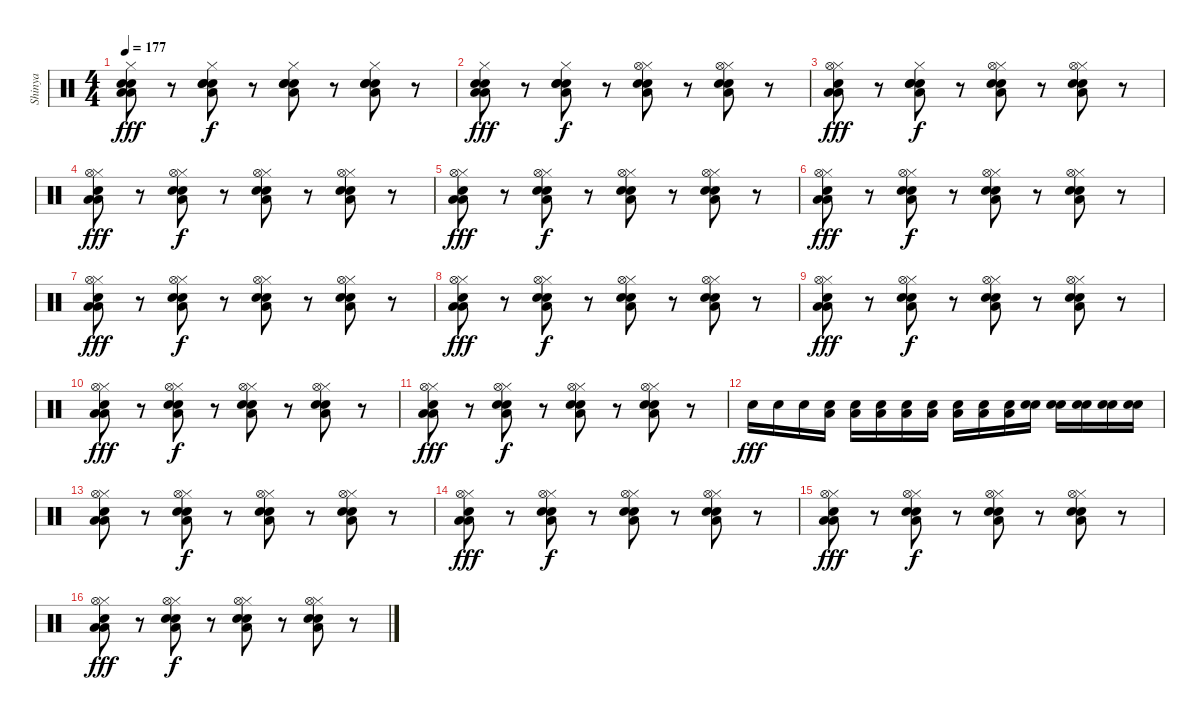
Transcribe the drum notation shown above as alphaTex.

\track ("Shinya " "Shinya ") {instrument percussion}
\staff {score}
\articulation defaults
\ts (4 4)
\tempo 177
\clef neutral
\ks c
("Hi-Hat (closed)" "Electric Snare (hit)" "Low Tom (hit)" "Electric Snare (hit)" "Low Tom (hit)").8{dy fff} r.8 ("Hi-Hat (closed)" "Electric Snare (hit)" "Low Tom (hit)" "Electric Snare (hit)" "Snare (hit) 2").8{dy f} r.8 ("Hi-Hat (closed)" "Electric Snare (hit)" "Electric Snare (hit)" "Snare (hit) 2" "Low Tom (hit)").8 r.8 ("Hi-Hat (closed)" "Electric Snare (hit)" "Electric Snare (hit)" "Electric Snare (hit)" "Low Tom (hit)").8 r.8 |
("Hi-Hat (closed)" "Electric Snare (hit)" "Low Tom (hit)" "Electric Snare (hit)" "Low Tom (hit)").8{dy fff} r.8 ("Hi-Hat (closed)" "Electric Snare (hit)" "Low Tom (hit)" "Electric Snare (hit)" "Snare (hit) 2").8{dy f} r.8 ("Hi-Hat (closed)" "Electric Snare (hit)" "Hi-Hat (open)" "Snare (hit) 2" "Low Tom (hit)").8 r.8 ("Hi-Hat (closed)" "Electric Snare (hit)" "Electric Snare (hit)" "Low Tom (hit)" "Hi-Hat (open)").8 r.8 |
("Hi-Hat (closed)" "Electric Snare (hit)" "Low Tom (hit)" "Hi-Hat (open)" "Low Tom (hit)").8{dy fff} r.8 ("Hi-Hat (closed)" "Electric Snare (hit)" "Low Tom (hit)" "Electric Snare (hit)" "Snare (hit) 2").8{dy f} r.8 ("Hi-Hat (closed)" "Electric Snare (hit)" "Hi-Hat (open)" "Snare (hit) 2" "Low Tom (hit)").8 r.8 ("Hi-Hat (closed)" "Electric Snare (hit)" "Electric Snare (hit)" "Hi-Hat (open)" "Low Tom (hit)").8 r.8 |
("Hi-Hat (closed)" "Electric Snare (hit)" "Low Tom (hit)" "Hi-Hat (open)" "Low Tom (hit)").8{dy fff} r.8 ("Hi-Hat (closed)" "Electric Snare (hit)" "Low Tom (hit)" "Hi-Hat (open)" "Snare (hit) 2").8{dy f} r.8 ("Hi-Hat (closed)" "Electric Snare (hit)" "Hi-Hat (open)" "Snare (hit) 2" "Low Tom (hit)").8 r.8 ("Hi-Hat (closed)" "Electric Snare (hit)" "Hi-Hat (open)" "Low Tom (hit)" "Electric Snare (hit)").8 r.8 |
("Hi-Hat (closed)" "Electric Snare (hit)" "Low Tom (hit)" "Hi-Hat (open)" "Low Tom (hit)").8{dy fff} r.8 ("Hi-Hat (closed)" "Electric Snare (hit)" "Low Tom (hit)" "Hi-Hat (open)" "Snare (hit) 2").8{dy f} r.8 ("Hi-Hat (closed)" "Electric Snare (hit)" "Hi-Hat (open)" "Snare (hit) 2" "Low Tom (hit)").8 r.8 ("Hi-Hat (closed)" "Hi-Hat (open)" "Electric Snare (hit)" "Electric Snare (hit)" "Low Tom (hit)").8 r.8 |
("Hi-Hat (closed)" "Electric Snare (hit)" "Low Tom (hit)" "Hi-Hat (open)" "Low Tom (hit)").8{dy fff} r.8 ("Hi-Hat (closed)" "Electric Snare (hit)" "Low Tom (hit)" "Hi-Hat (open)" "Snare (hit) 2").8{dy f} r.8 ("Hi-Hat (closed)" "Electric Snare (hit)" "Hi-Hat (open)" "Snare (hit) 2" "Low Tom (hit)").8 r.8 ("Hi-Hat (closed)" "Electric Snare (hit)" "Electric Snare (hit)" "Hi-Hat (open)" "Low Tom (hit)").8 r.8 |
("Hi-Hat (closed)" "Electric Snare (hit)" "Low Tom (hit)" "Hi-Hat (open)" "Low Tom (hit)").8{dy fff} r.8 ("Hi-Hat (closed)" "Electric Snare (hit)" "Low Tom (hit)" "Hi-Hat (open)" "Snare (hit) 2").8{dy f} r.8 ("Hi-Hat (closed)" "Electric Snare (hit)" "Hi-Hat (open)" "Snare (hit) 2" "Low Tom (hit)").8 r.8 ("Hi-Hat (closed)" "Electric Snare (hit)" "Electric Snare (hit)" "Low Tom (hit)" "Hi-Hat (open)").8 r.8 |
("Hi-Hat (closed)" "Electric Snare (hit)" "Low Tom (hit)" "Hi-Hat (open)" "Low Tom (hit)").8{dy fff} r.8 ("Hi-Hat (closed)" "Electric Snare (hit)" "Low Tom (hit)" "Hi-Hat (open)" "Snare (hit) 2").8{dy f} r.8 ("Hi-Hat (closed)" "Electric Snare (hit)" "Hi-Hat (open)" "Snare (hit) 2" "Low Tom (hit)").8 r.8 ("Hi-Hat (closed)" "Hi-Hat (open)" "Electric Snare (hit)" "Electric Snare (hit)" "Low Tom (hit)").8 r.8 |
("Hi-Hat (closed)" "Electric Snare (hit)" "Low Tom (hit)" "Hi-Hat (open)" "Low Tom (hit)").8{dy fff} r.8 ("Hi-Hat (closed)" "Electric Snare (hit)" "Low Tom (hit)" "Hi-Hat (open)" "Snare (hit) 2").8{dy f} r.8 ("Hi-Hat (closed)" "Electric Snare (hit)" "Hi-Hat (open)" "Snare (hit) 2" "Low Tom (hit)").8 r.8 ("Hi-Hat (closed)" "Electric Snare (hit)" "Electric Snare (hit)" "Hi-Hat (open)" "Low Tom (hit)").8 r.8 |
("Hi-Hat (closed)" "Electric Snare (hit)" "Low Tom (hit)" "Hi-Hat (open)" "Low Tom (hit)").8{dy fff} r.8 ("Hi-Hat (closed)" "Electric Snare (hit)" "Low Tom (hit)" "Hi-Hat (open)" "Snare (hit) 2").8{dy f} r.8 ("Hi-Hat (closed)" "Electric Snare (hit)" "Hi-Hat (open)" "Snare (hit) 2" "Low Tom (hit)").8 r.8 ("Hi-Hat (closed)" "Electric Snare (hit)" "Electric Snare (hit)" "Low Tom (hit)" "Hi-Hat (open)").8 r.8 |
("Hi-Hat (closed)" "Electric Snare (hit)" "Low Tom (hit)" "Hi-Hat (open)" "Low Tom (hit)").8{dy fff} r.8 ("Hi-Hat (closed)" "Electric Snare (hit)" "Low Tom (hit)" "Hi-Hat (open)" "Snare (hit) 2").8{dy f} r.8 ("Hi-Hat (closed)" "Electric Snare (hit)" "Hi-Hat (open)" "Snare (hit) 2" "Low Tom (hit)").8 r.8 ("Hi-Hat (closed)" "Hi-Hat (open)" "Electric Snare (hit)" "Electric Snare (hit)" "Low Tom (hit)").8 r.8 |
"Electric Snare (hit)".16{dy fff} "Electric Snare (hit)".16 "Electric Snare (hit)".16 ("Electric Snare (hit)" "Low Tom (hit)").16 ("Electric Snare (hit)" "Low Tom (hit)").16 ("Electric Snare (hit)" "Low Tom (hit)").16 ("Electric Snare (hit)" "Low Floor Tom (hit)").16 ("Electric Snare (hit)" "Low Floor Tom (hit)").16 ("Electric Snare (hit)" "Low Floor Tom (hit)").16 ("Electric Snare (hit)" "Low Floor Tom (hit)").16 ("Electric Snare (hit)" "Low Floor Tom (hit)").16 ("Electric Snare (hit)" "Snare (hit) 2").16 ("Electric Snare (hit)" "Snare (hit) 2").16 ("Electric Snare (hit)" "Snare (hit) 2").16 ("Electric Snare (hit)" "Snare (hit) 2").16 ("Electric Snare (hit)" "Snare (hit) 2").16 |
("Hi-Hat (closed)" "Electric Snare (hit)" "Low Tom (hit)" "Hi-Hat (open)" "Low Tom (hit)").8 r.8 ("Hi-Hat (closed)" "Electric Snare (hit)" "Low Tom (hit)" "Hi-Hat (open)" "Snare (hit) 2").8{dy f} r.8 ("Hi-Hat (closed)" "Electric Snare (hit)" "Hi-Hat (open)" "Snare (hit) 2" "Low Tom (hit)").8 r.8 ("Hi-Hat (closed)" "Electric Snare (hit)" "Electric Snare (hit)" "Low Tom (hit)" "Hi-Hat (open)").8 r.8 |
("Hi-Hat (closed)" "Electric Snare (hit)" "Low Tom (hit)" "Hi-Hat (open)" "Low Tom (hit)").8{dy fff} r.8 ("Hi-Hat (closed)" "Electric Snare (hit)" "Low Tom (hit)" "Hi-Hat (open)" "Snare (hit) 2").8{dy f} r.8 ("Hi-Hat (closed)" "Electric Snare (hit)" "Hi-Hat (open)" "Snare (hit) 2" "Low Tom (hit)").8 r.8 ("Hi-Hat (closed)" "Hi-Hat (open)" "Electric Snare (hit)" "Electric Snare (hit)" "Low Tom (hit)").8 r.8 |
("Hi-Hat (closed)" "Electric Snare (hit)" "Low Tom (hit)" "Hi-Hat (open)" "Low Tom (hit)").8{dy fff} r.8 ("Hi-Hat (closed)" "Electric Snare (hit)" "Low Tom (hit)" "Hi-Hat (open)" "Snare (hit) 2").8{dy f} r.8 ("Hi-Hat (closed)" "Electric Snare (hit)" "Hi-Hat (open)" "Snare (hit) 2" "Low Tom (hit)").8 r.8 ("Hi-Hat (closed)" "Electric Snare (hit)" "Electric Snare (hit)" "Hi-Hat (open)" "Low Tom (hit)").8 r.8 |
("Hi-Hat (closed)" "Electric Snare (hit)" "Low Tom (hit)" "Hi-Hat (open)" "Low Tom (hit)").8{dy fff} r.8 ("Hi-Hat (closed)" "Electric Snare (hit)" "Low Tom (hit)" "Hi-Hat (open)" "Snare (hit) 2").8{dy f} r.8 ("Hi-Hat (closed)" "Electric Snare (hit)" "Hi-Hat (open)" "Snare (hit) 2" "Low Tom (hit)").8 r.8 ("Hi-Hat (closed)" "Electric Snare (hit)" "Electric Snare (hit)" "Low Tom (hit)" "Hi-Hat (open)").8 r.8
